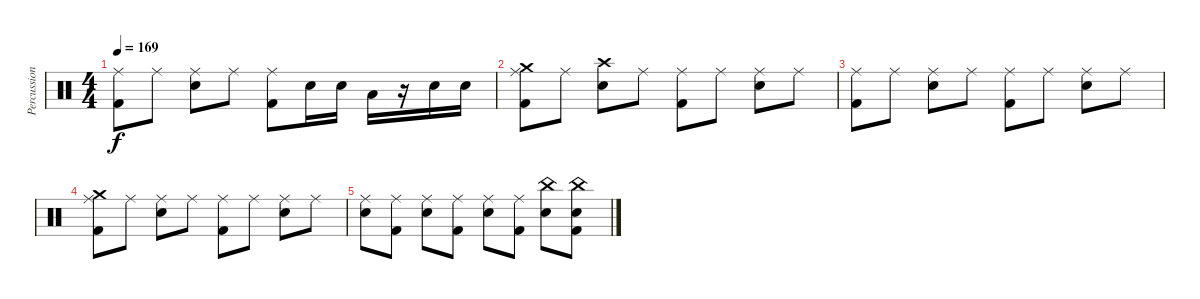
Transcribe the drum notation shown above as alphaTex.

\track ("Percussion" "Percussion") {instrument percussion}
\staff {score}
\articulation defaults
\ts (4 4)
\tempo 169
\clef neutral
\ks c
("Ride (middle)" "Kick (hit) 2").8{dy f} "Ride (middle)".8 ("Ride (middle)" "Electric Snare (hit)").8 "Ride (middle)".8 ("Ride (middle)" "Kick (hit) 2").8 "Electric Snare (hit)".16 "Electric Snare (hit)".16 "Low Tom (hit)".16 r.16 "Electric Snare (hit)".16 "Electric Snare (hit)".16 |
("Ride (middle)" "Crash medium (hit)" "Kick (hit) 2").8 "Ride (middle)".8 ("Crash high (hit)" "Electric Snare (hit)").8 "Ride (middle)".8 ("Ride (middle)" "Kick (hit) 2").8 "Ride (middle)".8 ("Ride (middle)" "Electric Snare (hit)").8 "Ride (middle)".8 |
("Ride (middle)" "Kick (hit) 2").8 "Ride (middle)".8 ("Ride (middle)" "Electric Snare (hit)").8 "Ride (middle)".8 ("Ride (middle)" "Kick (hit) 2").8 "Ride (middle)".8 ("Ride (middle)" "Electric Snare (hit)").8 "Ride (middle)".8 |
("Ride (middle)" "Crash medium (hit)" "Kick (hit) 2").8 "Ride (middle)".8 ("Ride (middle)" "Electric Snare (hit)").8 "Ride (middle)".8 ("Ride (middle)" "Kick (hit) 2").8 "Ride (middle)".8 ("Ride (middle)" "Electric Snare (hit)").8 "Ride (middle)".8 |
("Ride (middle)" "Electric Snare (hit)").8 ("Ride (middle)" "Kick (hit) 2").8 ("Ride (middle)" "Electric Snare (hit)").8 ("Ride (middle)" "Kick (hit) 2").8 ("Ride (middle)" "Electric Snare (hit)").8 ("Ride (middle)" "Kick (hit) 2").8 ("China (hit)" "Electric Snare (hit)").8 ("China (hit)" "Electric Snare (hit)" "Kick (hit) 2").8
